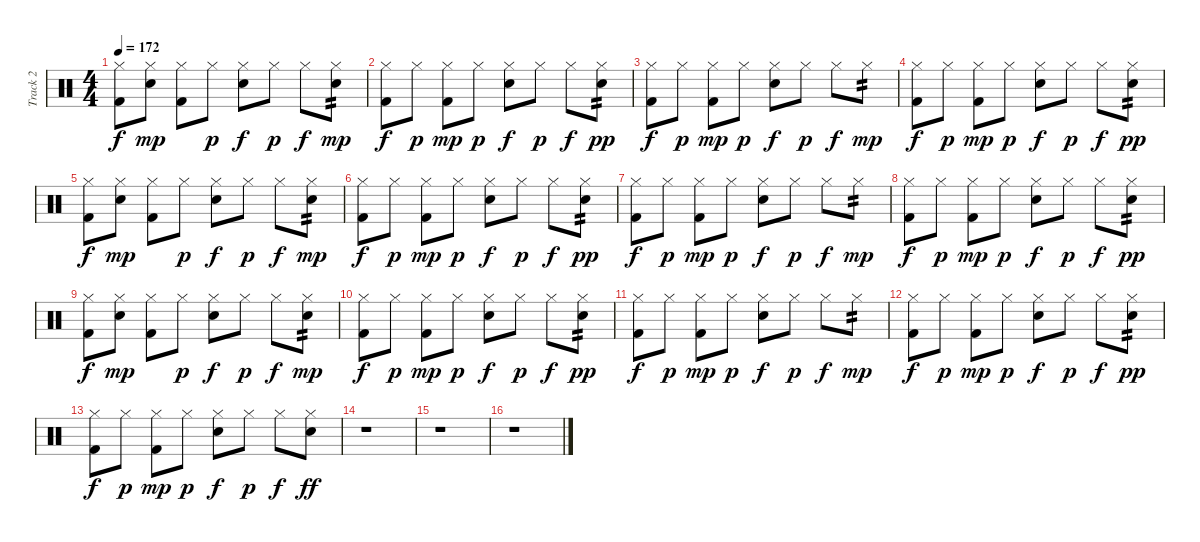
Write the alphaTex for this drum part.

\track ("Track 2" "Track 2") {instrument percussion}
\staff {score}
\articulation defaults
\ts (4 4)
\tempo 172
\clef neutral
\ks c
("Hi-Hat (closed)" "Kick (hit) 2").8{dy f} ("Hi-Hat (closed)" "Snare (hit) 2").8{dy mp} ("Hi-Hat (closed)" "Kick (hit) 2").8 "Hi-Hat (closed)".8{dy p} ("Hi-Hat (closed)" "Snare (hit) 2").8{dy f} "Hi-Hat (closed)".8{dy p} "Hi-Hat (closed)".8{dy f} ("Hi-Hat (closed)" "Snare (hit) 2").8{tp 2 dy mp} |
("Hi-Hat (closed)" "Kick (hit) 2").8{dy f} "Hi-Hat (closed)".8{dy p} ("Hi-Hat (closed)" "Kick (hit) 2").8{dy mp} "Hi-Hat (closed)".8{dy p} ("Hi-Hat (closed)" "Snare (hit) 2").8{dy f} "Hi-Hat (closed)".8{dy p} "Hi-Hat (closed)".8{dy f} ("Hi-Hat (closed)" "Snare (hit) 2").8{tp 2 dy pp} |
("Hi-Hat (closed)" "Kick (hit) 2").8{dy f} "Hi-Hat (closed)".8{dy p} ("Hi-Hat (closed)" "Kick (hit) 2").8{dy mp} "Hi-Hat (closed)".8{dy p} ("Hi-Hat (closed)" "Snare (hit) 2").8{dy f} "Hi-Hat (closed)".8{dy p} "Hi-Hat (closed)".8{dy f} "Hi-Hat (closed)".8{tp 2 dy mp} |
("Hi-Hat (closed)" "Kick (hit) 2").8{dy f} "Hi-Hat (closed)".8{dy p} ("Hi-Hat (closed)" "Kick (hit) 2").8{dy mp} "Hi-Hat (closed)".8{dy p} ("Hi-Hat (closed)" "Snare (hit) 2").8{dy f} "Hi-Hat (closed)".8{dy p} "Hi-Hat (closed)".8{dy f} ("Hi-Hat (closed)" "Snare (hit) 2").8{tp 2 dy pp} |
("Hi-Hat (closed)" "Kick (hit) 2").8{dy f} ("Hi-Hat (closed)" "Snare (hit) 2").8{dy mp} ("Hi-Hat (closed)" "Kick (hit) 2").8 "Hi-Hat (closed)".8{dy p} ("Hi-Hat (closed)" "Snare (hit) 2").8{dy f} "Hi-Hat (closed)".8{dy p} "Hi-Hat (closed)".8{dy f} ("Hi-Hat (closed)" "Snare (hit) 2").8{tp 2 dy mp} |
("Hi-Hat (closed)" "Kick (hit) 2").8{dy f} "Hi-Hat (closed)".8{dy p} ("Hi-Hat (closed)" "Kick (hit) 2").8{dy mp} "Hi-Hat (closed)".8{dy p} ("Hi-Hat (closed)" "Snare (hit) 2").8{dy f} "Hi-Hat (closed)".8{dy p} "Hi-Hat (closed)".8{dy f} ("Hi-Hat (closed)" "Snare (hit) 2").8{tp 2 dy pp} |
("Hi-Hat (closed)" "Kick (hit) 2").8{dy f} "Hi-Hat (closed)".8{dy p} ("Hi-Hat (closed)" "Kick (hit) 2").8{dy mp} "Hi-Hat (closed)".8{dy p} ("Hi-Hat (closed)" "Snare (hit) 2").8{dy f} "Hi-Hat (closed)".8{dy p} "Hi-Hat (closed)".8{dy f} "Hi-Hat (closed)".8{tp 2 dy mp} |
("Hi-Hat (closed)" "Kick (hit) 2").8{dy f} "Hi-Hat (closed)".8{dy p} ("Hi-Hat (closed)" "Kick (hit) 2").8{dy mp} "Hi-Hat (closed)".8{dy p} ("Hi-Hat (closed)" "Snare (hit) 2").8{dy f} "Hi-Hat (closed)".8{dy p} "Hi-Hat (closed)".8{dy f} ("Hi-Hat (closed)" "Snare (hit) 2").8{tp 2 dy pp} |
("Hi-Hat (closed)" "Kick (hit) 2").8{dy f} ("Hi-Hat (closed)" "Snare (hit) 2").8{dy mp} ("Hi-Hat (closed)" "Kick (hit) 2").8 "Hi-Hat (closed)".8{dy p} ("Hi-Hat (closed)" "Snare (hit) 2").8{dy f} "Hi-Hat (closed)".8{dy p} "Hi-Hat (closed)".8{dy f} ("Hi-Hat (closed)" "Snare (hit) 2").8{tp 2 dy mp} |
("Hi-Hat (closed)" "Kick (hit) 2").8{dy f} "Hi-Hat (closed)".8{dy p} ("Hi-Hat (closed)" "Kick (hit) 2").8{dy mp} "Hi-Hat (closed)".8{dy p} ("Hi-Hat (closed)" "Snare (hit) 2").8{dy f} "Hi-Hat (closed)".8{dy p} "Hi-Hat (closed)".8{dy f} ("Hi-Hat (closed)" "Snare (hit) 2").8{tp 2 dy pp} |
("Hi-Hat (closed)" "Kick (hit) 2").8{dy f} "Hi-Hat (closed)".8{dy p} ("Hi-Hat (closed)" "Kick (hit) 2").8{dy mp} "Hi-Hat (closed)".8{dy p} ("Hi-Hat (closed)" "Snare (hit) 2").8{dy f} "Hi-Hat (closed)".8{dy p} "Hi-Hat (closed)".8{dy f} "Hi-Hat (closed)".8{tp 2 dy mp} |
("Hi-Hat (closed)" "Kick (hit) 2").8{dy f} "Hi-Hat (closed)".8{dy p} ("Hi-Hat (closed)" "Kick (hit) 2").8{dy mp} "Hi-Hat (closed)".8{dy p} ("Hi-Hat (closed)" "Snare (hit) 2").8{dy f} "Hi-Hat (closed)".8{dy p} "Hi-Hat (closed)".8{dy f} ("Hi-Hat (closed)" "Snare (hit) 2").8{tp 2 dy pp} |
("Hi-Hat (closed)" "Kick (hit) 2").8{dy f} "Hi-Hat (closed)".8{dy p} ("Hi-Hat (closed)" "Kick (hit) 2").8{dy mp} "Hi-Hat (closed)".8{dy p} ("Hi-Hat (closed)" "Snare (hit) 2").8{dy f} "Hi-Hat (closed)".8{dy p} "Hi-Hat (closed)".8{dy f} ("Hi-Hat (closed)" "Snare (hit) 2").8{dy ff} |
r.1 |
r.1 |
r.1
